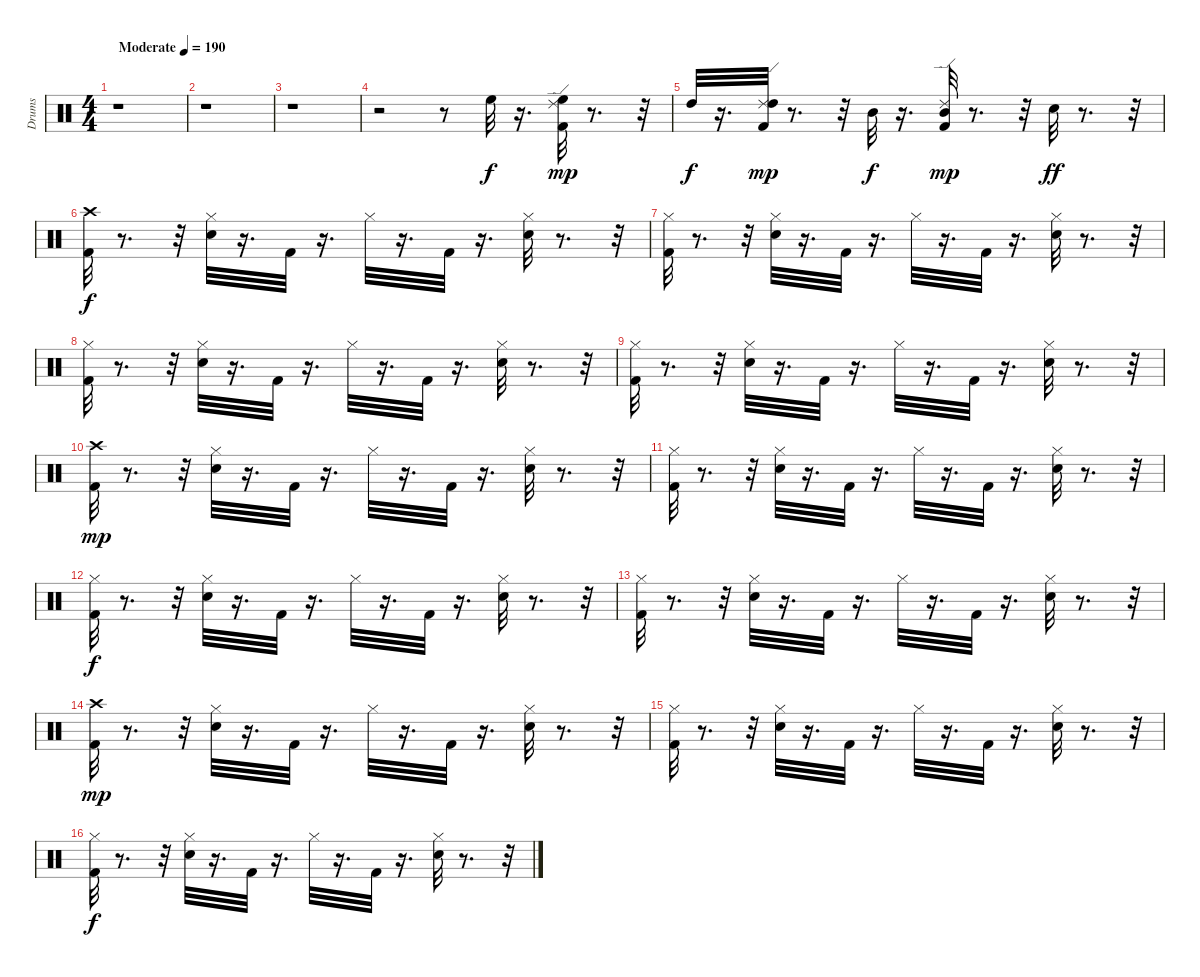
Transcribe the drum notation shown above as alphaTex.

\track ("Drums" "Drums") {instrument percussion}
\staff {score}
\articulation defaults
\ts (4 4)
\tempo (190 "Moderate")
\clef neutral
\ks c
r.1{dy f} |
r.1 |
r.1 |
r.2 r.8 "High Floor Tom (hit)".32 r.16{d} ("Kick (hit) 2" "Ride (edge) 2" "High Floor Tom (hit)").32{dy mp} r.8{d} r.32 |
"High Tom (hit)".32{dy f} r.16{d} ("Kick (hit) 2" "Ride (edge) 2" "High Tom (hit)").32{dy mp} r.8{d} r.32 "Mid Tom (hit)".32{dy f} r.16{d} ("Kick (hit) 2" "Ride (edge) 2" "Mid Tom (hit)").32{dy mp} r.8{d} r.32 "Snare (hit) 2".32{dy ff} r.8{d} r.32 |
("Crash high (hit)" "Kick (hit) 2").32{dy f} r.8{d} r.32 ("Hi-Hat (closed)" "Snare (hit) 2").32 r.16{d} "Kick (hit) 2".32 r.16{d} "Hi-Hat (closed)".32 r.16{d} "Kick (hit) 2".32 r.16{d} ("Hi-Hat (closed)" "Snare (hit) 2").32 r.8{d} r.32 |
("Hi-Hat (closed)" "Kick (hit) 2").32 r.8{d} r.32 ("Snare (hit) 2" "Hi-Hat (closed)").32 r.16{d} "Kick (hit) 2".32 r.16{d} "Hi-Hat (closed)".32 r.16{d} "Kick (hit) 2".32 r.16{d} ("Snare (hit) 2" "Hi-Hat (closed)").32 r.8{d} r.32 |
("Kick (hit) 2" "Hi-Hat (closed)").32 r.8{d} r.32 ("Snare (hit) 2" "Hi-Hat (closed)").32 r.16{d} "Kick (hit) 2".32 r.16{d} "Hi-Hat (closed)".32 r.16{d} "Kick (hit) 2".32 r.16{d} ("Snare (hit) 2" "Hi-Hat (closed)").32 r.8{d} r.32 |
("Kick (hit) 2" "Hi-Hat (closed)").32 r.8{d} r.32 ("Snare (hit) 2" "Hi-Hat (closed)").32 r.16{d} "Kick (hit) 2".32 r.16{d} "Hi-Hat (closed)".32 r.16{d} "Kick (hit) 2".32 r.16{d} ("Snare (hit) 2" "Hi-Hat (closed)").32 r.8{d} r.32 |
("Crash high (hit)" "Kick (hit) 2").32{dy mp} r.8{d} r.32 ("Hi-Hat (closed)" "Snare (hit) 2").32 r.16{d} "Kick (hit) 2".32 r.16{d} "Hi-Hat (closed)".32 r.16{d} "Kick (hit) 2".32 r.16{d} ("Hi-Hat (closed)" "Snare (hit) 2").32 r.8{d} r.32 |
("Hi-Hat (closed)" "Kick (hit) 2").32 r.8{d} r.32 ("Hi-Hat (closed)" "Snare (hit) 2").32 r.16{d} "Kick (hit) 2".32 r.16{d} "Hi-Hat (closed)".32 r.16{d} "Kick (hit) 2".32 r.16{d} ("Hi-Hat (closed)" "Snare (hit) 2").32 r.8{d} r.32 |
("Kick (hit) 2" "Hi-Hat (closed)").32{dy f} r.8{d} r.32 ("Snare (hit) 2" "Hi-Hat (closed)").32 r.16{d} "Kick (hit) 2".32 r.16{d} "Hi-Hat (closed)".32 r.16{d} "Kick (hit) 2".32 r.16{d} ("Snare (hit) 2" "Hi-Hat (closed)").32 r.8{d} r.32 |
("Kick (hit) 2" "Hi-Hat (closed)").32 r.8{d} r.32 ("Snare (hit) 2" "Hi-Hat (closed)").32 r.16{d} "Kick (hit) 2".32 r.16{d} "Hi-Hat (closed)".32 r.16{d} "Kick (hit) 2".32 r.16{d} ("Snare (hit) 2" "Hi-Hat (closed)").32 r.8{d} r.32 |
("Crash high (hit)" "Kick (hit) 2").32{dy mp} r.8{d} r.32 ("Hi-Hat (closed)" "Snare (hit) 2").32 r.16{d} "Kick (hit) 2".32 r.16{d} "Hi-Hat (closed)".32 r.16{d} "Kick (hit) 2".32 r.16{d} ("Hi-Hat (closed)" "Snare (hit) 2").32 r.8{d} r.32 |
("Hi-Hat (closed)" "Kick (hit) 2").32 r.8{d} r.32 ("Hi-Hat (closed)" "Snare (hit) 2").32 r.16{d} "Kick (hit) 2".32 r.16{d} "Hi-Hat (closed)".32 r.16{d} "Kick (hit) 2".32 r.16{d} ("Hi-Hat (closed)" "Snare (hit) 2").32 r.8{d} r.32 |
("Kick (hit) 2" "Hi-Hat (closed)").32{dy f} r.8{d} r.32 ("Snare (hit) 2" "Hi-Hat (closed)").32 r.16{d} "Kick (hit) 2".32 r.16{d} "Hi-Hat (closed)".32 r.16{d} "Kick (hit) 2".32 r.16{d} ("Snare (hit) 2" "Hi-Hat (closed)").32 r.8{d} r.32
